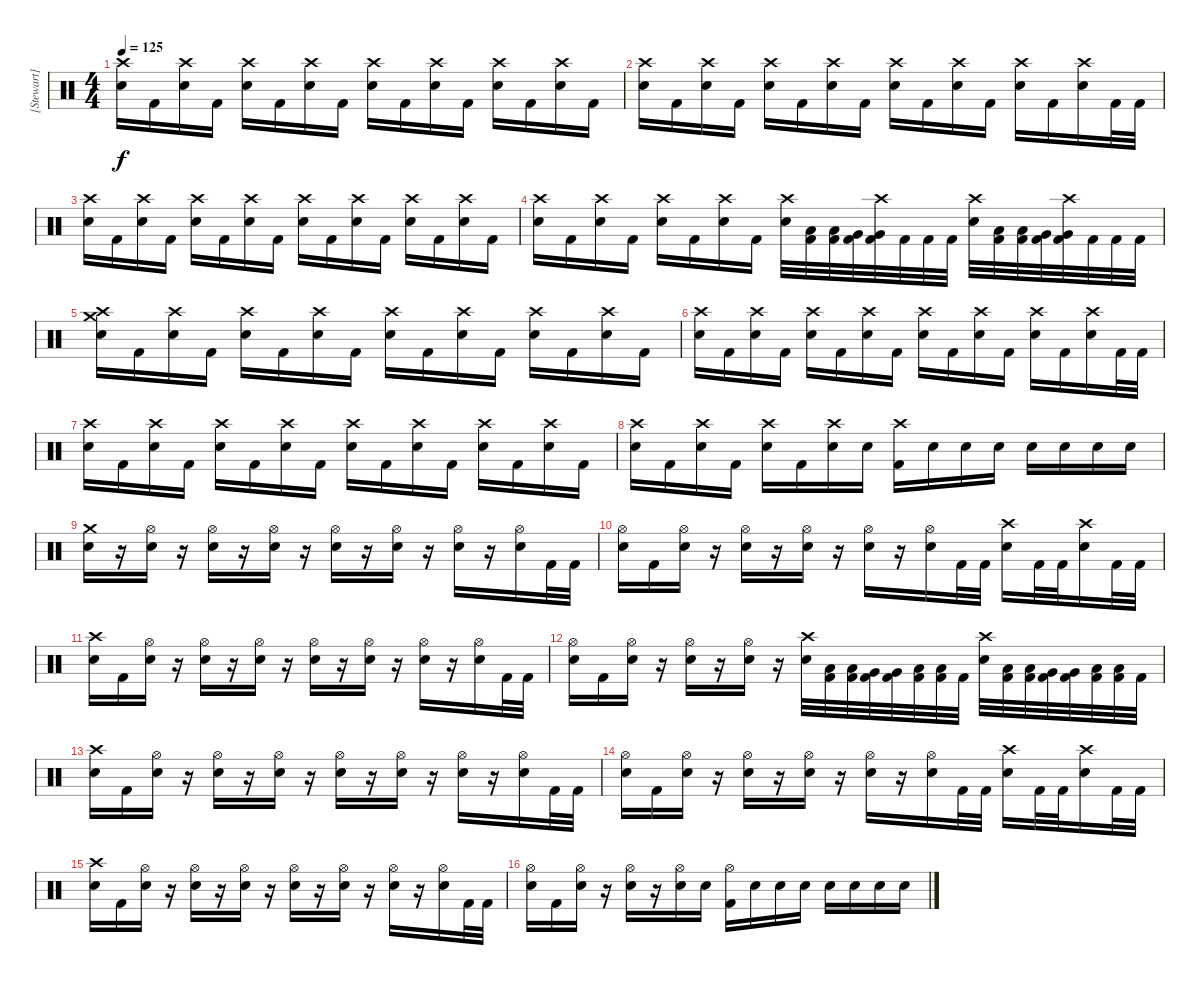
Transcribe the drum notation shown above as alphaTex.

\track ("[Stewart]" "[Stewart]") {instrument percussion}
\staff {score}
\articulation defaults
\ts (4 4)
\tempo 125
\clef neutral
\ks c
("Crash high (hit)" "Electric Snare (hit)").16{dy f} "Kick (hit) 2".16 ("Crash high (hit)" "Electric Snare (hit)").16 "Kick (hit) 2".16 ("Crash high (hit)" "Electric Snare (hit)").16 "Kick (hit) 2".16 ("Crash high (hit)" "Electric Snare (hit)").16 "Kick (hit) 2".16 ("Crash high (hit)" "Electric Snare (hit)").16 "Kick (hit) 2".16 ("Crash high (hit)" "Electric Snare (hit)").16 "Kick (hit) 2".16 ("Crash high (hit)" "Electric Snare (hit)").16 "Kick (hit) 2".16 ("Crash high (hit)" "Electric Snare (hit)").16 "Kick (hit) 2".16 |
("Crash high (hit)" "Electric Snare (hit)").16 "Kick (hit) 2".16 ("Crash high (hit)" "Electric Snare (hit)").16 "Kick (hit) 2".16 ("Crash high (hit)" "Electric Snare (hit)").16 "Kick (hit) 2".16 ("Crash high (hit)" "Electric Snare (hit)").16 "Kick (hit) 2".16 ("Crash high (hit)" "Electric Snare (hit)").16 "Kick (hit) 2".16 ("Crash high (hit)" "Electric Snare (hit)").16 "Kick (hit) 2".16 ("Crash high (hit)" "Electric Snare (hit)").16 "Kick (hit) 2".16 ("Crash high (hit)" "Electric Snare (hit)").16 "Kick (hit) 2".32 "Kick (hit) 2".32 |
("Crash high (hit)" "Electric Snare (hit)").16 "Kick (hit) 2".16 ("Crash high (hit)" "Electric Snare (hit)").16 "Kick (hit) 2".16 ("Crash high (hit)" "Electric Snare (hit)").16 "Kick (hit) 2".16 ("Crash high (hit)" "Electric Snare (hit)").16 "Kick (hit) 2".16 ("Crash high (hit)" "Electric Snare (hit)").16 "Kick (hit) 2".16 ("Crash high (hit)" "Electric Snare (hit)").16 "Kick (hit) 2".16 ("Crash high (hit)" "Electric Snare (hit)").16 "Kick (hit) 2".16 ("Crash high (hit)" "Electric Snare (hit)").16 "Kick (hit) 2".16 |
("Crash high (hit)" "Electric Snare (hit)").16 "Kick (hit) 2".16 ("Crash high (hit)" "Electric Snare (hit)").16 "Kick (hit) 2".16 ("Crash high (hit)" "Electric Snare (hit)").16 "Kick (hit) 2".16 ("Crash high (hit)" "Electric Snare (hit)").16 "Kick (hit) 2".16 ("Crash high (hit)" "Electric Snare (hit)").32 ("Low Tom (hit)" "Kick (hit) 2").32 ("Low Tom (hit)" "Kick (hit) 2").32 ("Very Low Tom (hit)" "Kick (hit) 2").32 ("Crash high (hit)" "Very Low Tom (hit)" "Kick (hit) 2").32 "Kick (hit) 2".32 "Kick (hit) 2".32 "Kick (hit) 2".32 ("Crash high (hit)" "Electric Snare (hit)").32 ("Low Tom (hit)" "Kick (hit) 2").32 ("Low Tom (hit)" "Kick (hit) 2").32 ("Very Low Tom (hit)" "Kick (hit) 2").32 ("Crash high (hit)" "Very Low Tom (hit)" "Kick (hit) 2").32 "Kick (hit) 2".32 "Kick (hit) 2".32 "Kick (hit) 2".32 |
("Crash high (hit)" "Crash medium (hit)" "Electric Snare (hit)").16 "Kick (hit) 2".16 ("Crash high (hit)" "Electric Snare (hit)").16 "Kick (hit) 2".16 ("Crash high (hit)" "Electric Snare (hit)").16 "Kick (hit) 2".16 ("Crash high (hit)" "Electric Snare (hit)").16 "Kick (hit) 2".16 ("Crash high (hit)" "Electric Snare (hit)").16 "Kick (hit) 2".16 ("Crash high (hit)" "Electric Snare (hit)").16 "Kick (hit) 2".16 ("Crash high (hit)" "Electric Snare (hit)").16 "Kick (hit) 2".16 ("Crash high (hit)" "Electric Snare (hit)").16 "Kick (hit) 2".16 |
("Crash high (hit)" "Electric Snare (hit)").16 "Kick (hit) 2".16 ("Crash high (hit)" "Electric Snare (hit)").16 "Kick (hit) 2".16 ("Crash high (hit)" "Electric Snare (hit)").16 "Kick (hit) 2".16 ("Crash high (hit)" "Electric Snare (hit)").16 "Kick (hit) 2".16 ("Crash high (hit)" "Electric Snare (hit)").16 "Kick (hit) 2".16 ("Crash high (hit)" "Electric Snare (hit)").16 "Kick (hit) 2".16 ("Crash high (hit)" "Electric Snare (hit)").16 "Kick (hit) 2".16 ("Crash high (hit)" "Electric Snare (hit)").16 "Kick (hit) 2".32 "Kick (hit) 2".32 |
("Crash high (hit)" "Electric Snare (hit)").16 "Kick (hit) 2".16 ("Crash high (hit)" "Electric Snare (hit)").16 "Kick (hit) 2".16 ("Crash high (hit)" "Electric Snare (hit)").16 "Kick (hit) 2".16 ("Crash high (hit)" "Electric Snare (hit)").16 "Kick (hit) 2".16 ("Crash high (hit)" "Electric Snare (hit)").16 "Kick (hit) 2".16 ("Crash high (hit)" "Electric Snare (hit)").16 "Kick (hit) 2".16 ("Crash high (hit)" "Electric Snare (hit)").16 "Kick (hit) 2".16 ("Crash high (hit)" "Electric Snare (hit)").16 "Kick (hit) 2".16 |
("Crash high (hit)" "Electric Snare (hit)").16 "Kick (hit) 2".16 ("Crash high (hit)" "Electric Snare (hit)").16 "Kick (hit) 2".16 ("Crash high (hit)" "Electric Snare (hit)").16 "Kick (hit) 2".16 ("Crash high (hit)" "Electric Snare (hit)").16 "Electric Snare (hit)".16 ("Crash high (hit)" "Kick (hit) 2").16 "Electric Snare (hit)".16 "Electric Snare (hit)".16 "Electric Snare (hit)".16 "Electric Snare (hit)".16 "Electric Snare (hit)".16 "Electric Snare (hit)".16 "Electric Snare (hit)".16 |
("Crash medium (hit)" "Electric Snare (hit)").16 r.16 ("Hi-Hat (open)" "Electric Snare (hit)").16 r.16 ("Hi-Hat (open)" "Electric Snare (hit)").16 r.16 ("Hi-Hat (open)" "Electric Snare (hit)").16 r.16 ("Hi-Hat (open)" "Electric Snare (hit)").16 r.16 ("Hi-Hat (open)" "Electric Snare (hit)").16 r.16 ("Hi-Hat (open)" "Electric Snare (hit)").16 r.16 ("Hi-Hat (open)" "Electric Snare (hit)").16 "Kick (hit) 2".32 "Kick (hit) 2".32 |
("Hi-Hat (open)" "Electric Snare (hit)").16 "Kick (hit) 2".16 ("Hi-Hat (open)" "Electric Snare (hit)").16 r.16 ("Hi-Hat (open)" "Electric Snare (hit)").16 r.16 ("Hi-Hat (open)" "Electric Snare (hit)").16 r.16 ("Hi-Hat (open)" "Electric Snare (hit)").16 r.16 ("Hi-Hat (open)" "Electric Snare (hit)").16 "Kick (hit) 2".32 "Kick (hit) 2".32 ("Crash high (hit)" "Electric Snare (hit)").16 "Kick (hit) 2".32 "Kick (hit) 2".32 ("Crash high (hit)" "Electric Snare (hit)").16 "Kick (hit) 2".32 "Kick (hit) 2".32 |
("Crash high (hit)" "Electric Snare (hit)").16 "Kick (hit) 2".16 ("Hi-Hat (open)" "Electric Snare (hit)").16 r.16 ("Hi-Hat (open)" "Electric Snare (hit)").16 r.16 ("Hi-Hat (open)" "Electric Snare (hit)").16 r.16 ("Hi-Hat (open)" "Electric Snare (hit)").16 r.16 ("Hi-Hat (open)" "Electric Snare (hit)").16 r.16 ("Hi-Hat (open)" "Electric Snare (hit)").16 r.16 ("Hi-Hat (open)" "Electric Snare (hit)").16 "Kick (hit) 2".32 "Kick (hit) 2".32 |
("Hi-Hat (open)" "Electric Snare (hit)").16 "Kick (hit) 2".16 ("Hi-Hat (open)" "Electric Snare (hit)").16 r.16 ("Hi-Hat (open)" "Electric Snare (hit)").16 r.16 ("Hi-Hat (open)" "Electric Snare (hit)").16 r.16 ("Crash high (hit)" "Electric Snare (hit)").32 ("Low Tom (hit)" "Kick (hit) 2").32 ("Low Tom (hit)" "Kick (hit) 2").32 ("Very Low Tom (hit)" "Kick (hit) 2").32 ("Very Low Tom (hit)" "Kick (hit) 2").32 ("Low Tom (hit)" "Kick (hit) 2").32 ("Low Tom (hit)" "Kick (hit) 2").32 "Kick (hit) 2".32 ("Crash high (hit)" "Electric Snare (hit)").32 ("Low Tom (hit)" "Kick (hit) 2").32 ("Low Tom (hit)" "Kick (hit) 2").32 ("Very Low Tom (hit)" "Kick (hit) 2").32 ("Very Low Tom (hit)" "Kick (hit) 2").32 ("Low Tom (hit)" "Kick (hit) 2").32 ("Low Tom (hit)" "Kick (hit) 2").32 "Kick (hit) 2".32 |
("Crash high (hit)" "Electric Snare (hit)").16 "Kick (hit) 2".16 ("Hi-Hat (open)" "Electric Snare (hit)").16 r.16 ("Hi-Hat (open)" "Electric Snare (hit)").16 r.16 ("Hi-Hat (open)" "Electric Snare (hit)").16 r.16 ("Hi-Hat (open)" "Electric Snare (hit)").16 r.16 ("Hi-Hat (open)" "Electric Snare (hit)").16 r.16 ("Hi-Hat (open)" "Electric Snare (hit)").16 r.16 ("Hi-Hat (open)" "Electric Snare (hit)").16 "Kick (hit) 2".32 "Kick (hit) 2".32 |
("Hi-Hat (open)" "Electric Snare (hit)").16 "Kick (hit) 2".16 ("Hi-Hat (open)" "Electric Snare (hit)").16 r.16 ("Hi-Hat (open)" "Electric Snare (hit)").16 r.16 ("Hi-Hat (open)" "Electric Snare (hit)").16 r.16 ("Hi-Hat (open)" "Electric Snare (hit)").16 r.16 ("Hi-Hat (open)" "Electric Snare (hit)").16 "Kick (hit) 2".32 "Kick (hit) 2".32 ("Crash high (hit)" "Electric Snare (hit)").16 "Kick (hit) 2".32 "Kick (hit) 2".32 ("Crash high (hit)" "Electric Snare (hit)").16 "Kick (hit) 2".32 "Kick (hit) 2".32 |
("Crash high (hit)" "Electric Snare (hit)").16 "Kick (hit) 2".16 ("Hi-Hat (open)" "Electric Snare (hit)").16 r.16 ("Hi-Hat (open)" "Electric Snare (hit)").16 r.16 ("Hi-Hat (open)" "Electric Snare (hit)").16 r.16 ("Hi-Hat (open)" "Electric Snare (hit)").16 r.16 ("Hi-Hat (open)" "Electric Snare (hit)").16 r.16 ("Hi-Hat (open)" "Electric Snare (hit)").16 r.16 ("Hi-Hat (open)" "Electric Snare (hit)").16 "Kick (hit) 2".32 "Kick (hit) 2".32 |
("Hi-Hat (open)" "Electric Snare (hit)").16 "Kick (hit) 2".16 ("Hi-Hat (open)" "Electric Snare (hit)").16 r.16 ("Hi-Hat (open)" "Electric Snare (hit)").16 r.16 ("Hi-Hat (open)" "Electric Snare (hit)").16 "Electric Snare (hit)".16 ("Hi-Hat (open)" "Kick (hit) 2").16 "Electric Snare (hit)".16 "Electric Snare (hit)".16 "Electric Snare (hit)".16 "Electric Snare (hit)".16 "Electric Snare (hit)".16 "Electric Snare (hit)".16 "Electric Snare (hit)".16
